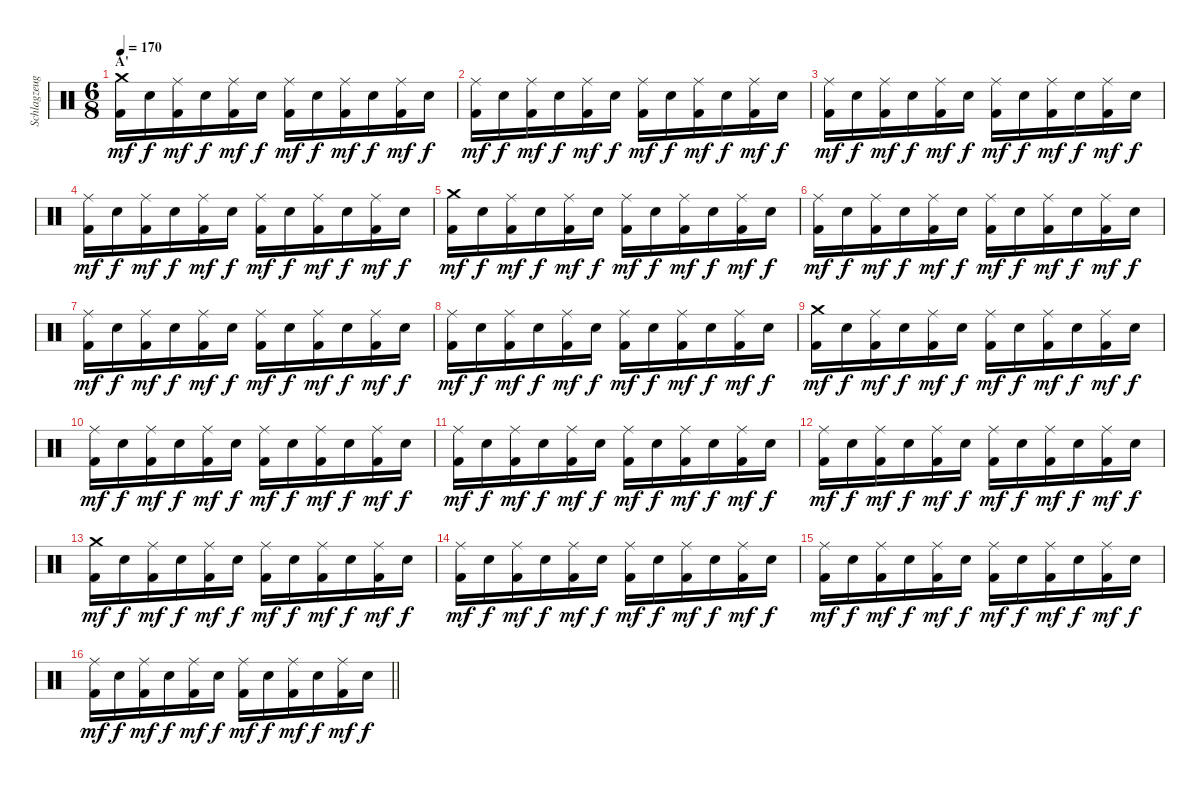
\track ("Schlagzeug" "Schlagzeug") {instrument percussion}
\staff {score}
\articulation defaults
\ts (6 8)
\section ("" "A'")
\tempo 170
\clef neutral
\ks c
("Crash medium (hit)" "Kick (hit) 2").16{dy mf} "Electric Snare (hit)".16{dy f} ("Ride (middle)" "Kick (hit) 2").16{dy mf} "Electric Snare (hit)".16{dy f} ("Ride (middle)" "Kick (hit) 2").16{dy mf} "Electric Snare (hit)".16{dy f} ("Ride (middle)" "Kick (hit) 2").16{dy mf} "Electric Snare (hit)".16{dy f} ("Ride (middle)" "Kick (hit) 2").16{dy mf} "Electric Snare (hit)".16{dy f} ("Ride (middle)" "Kick (hit) 2").16{dy mf} "Electric Snare (hit)".16{dy f} |
("Ride (middle)" "Kick (hit) 2").16{dy mf} "Electric Snare (hit)".16{dy f} ("Ride (middle)" "Kick (hit) 2").16{dy mf} "Electric Snare (hit)".16{dy f} ("Ride (middle)" "Kick (hit) 2").16{dy mf} "Electric Snare (hit)".16{dy f} ("Ride (middle)" "Kick (hit) 2").16{dy mf} "Electric Snare (hit)".16{dy f} ("Ride (middle)" "Kick (hit) 2").16{dy mf} "Electric Snare (hit)".16{dy f} ("Ride (middle)" "Kick (hit) 2").16{dy mf} "Electric Snare (hit)".16{dy f} |
("Ride (middle)" "Kick (hit) 2").16{dy mf} "Electric Snare (hit)".16{dy f} ("Ride (middle)" "Kick (hit) 2").16{dy mf} "Electric Snare (hit)".16{dy f} ("Ride (middle)" "Kick (hit) 2").16{dy mf} "Electric Snare (hit)".16{dy f} ("Ride (middle)" "Kick (hit) 2").16{dy mf} "Electric Snare (hit)".16{dy f} ("Ride (middle)" "Kick (hit) 2").16{dy mf} "Electric Snare (hit)".16{dy f} ("Ride (middle)" "Kick (hit) 2").16{dy mf} "Electric Snare (hit)".16{dy f} |
("Ride (middle)" "Kick (hit) 2").16{dy mf} "Electric Snare (hit)".16{dy f} ("Ride (middle)" "Kick (hit) 2").16{dy mf} "Electric Snare (hit)".16{dy f} ("Ride (middle)" "Kick (hit) 2").16{dy mf} "Electric Snare (hit)".16{dy f} ("Ride (middle)" "Kick (hit) 2").16{dy mf} "Electric Snare (hit)".16{dy f} ("Ride (middle)" "Kick (hit) 2").16{dy mf} "Electric Snare (hit)".16{dy f} ("Ride (middle)" "Kick (hit) 2").16{dy mf} "Electric Snare (hit)".16{dy f} |
("Crash medium (hit)" "Kick (hit) 2").16{dy mf} "Electric Snare (hit)".16{dy f} ("Ride (middle)" "Kick (hit) 2").16{dy mf} "Electric Snare (hit)".16{dy f} ("Ride (middle)" "Kick (hit) 2").16{dy mf} "Electric Snare (hit)".16{dy f} ("Ride (middle)" "Kick (hit) 2").16{dy mf} "Electric Snare (hit)".16{dy f} ("Ride (middle)" "Kick (hit) 2").16{dy mf} "Electric Snare (hit)".16{dy f} ("Ride (middle)" "Kick (hit) 2").16{dy mf} "Electric Snare (hit)".16{dy f} |
("Ride (middle)" "Kick (hit) 2").16{dy mf} "Electric Snare (hit)".16{dy f} ("Ride (middle)" "Kick (hit) 2").16{dy mf} "Electric Snare (hit)".16{dy f} ("Ride (middle)" "Kick (hit) 2").16{dy mf} "Electric Snare (hit)".16{dy f} ("Ride (middle)" "Kick (hit) 2").16{dy mf} "Electric Snare (hit)".16{dy f} ("Ride (middle)" "Kick (hit) 2").16{dy mf} "Electric Snare (hit)".16{dy f} ("Ride (middle)" "Kick (hit) 2").16{dy mf} "Electric Snare (hit)".16{dy f} |
("Ride (middle)" "Kick (hit) 2").16{dy mf} "Electric Snare (hit)".16{dy f} ("Ride (middle)" "Kick (hit) 2").16{dy mf} "Electric Snare (hit)".16{dy f} ("Ride (middle)" "Kick (hit) 2").16{dy mf} "Electric Snare (hit)".16{dy f} ("Ride (middle)" "Kick (hit) 2").16{dy mf} "Electric Snare (hit)".16{dy f} ("Ride (middle)" "Kick (hit) 2").16{dy mf} "Electric Snare (hit)".16{dy f} ("Ride (middle)" "Kick (hit) 2").16{dy mf} "Electric Snare (hit)".16{dy f} |
("Ride (middle)" "Kick (hit) 2").16{dy mf} "Electric Snare (hit)".16{dy f} ("Ride (middle)" "Kick (hit) 2").16{dy mf} "Electric Snare (hit)".16{dy f} ("Ride (middle)" "Kick (hit) 2").16{dy mf} "Electric Snare (hit)".16{dy f} ("Ride (middle)" "Kick (hit) 2").16{dy mf} "Electric Snare (hit)".16{dy f} ("Ride (middle)" "Kick (hit) 2").16{dy mf} "Electric Snare (hit)".16{dy f} ("Ride (middle)" "Kick (hit) 2").16{dy mf} "Electric Snare (hit)".16{dy f} |
("Crash medium (hit)" "Kick (hit) 2").16{dy mf} "Electric Snare (hit)".16{dy f} ("Ride (middle)" "Kick (hit) 2").16{dy mf} "Electric Snare (hit)".16{dy f} ("Ride (middle)" "Kick (hit) 2").16{dy mf} "Electric Snare (hit)".16{dy f} ("Ride (middle)" "Kick (hit) 2").16{dy mf} "Electric Snare (hit)".16{dy f} ("Ride (middle)" "Kick (hit) 2").16{dy mf} "Electric Snare (hit)".16{dy f} ("Ride (middle)" "Kick (hit) 2").16{dy mf} "Electric Snare (hit)".16{dy f} |
("Ride (middle)" "Kick (hit) 2").16{dy mf} "Electric Snare (hit)".16{dy f} ("Ride (middle)" "Kick (hit) 2").16{dy mf} "Electric Snare (hit)".16{dy f} ("Ride (middle)" "Kick (hit) 2").16{dy mf} "Electric Snare (hit)".16{dy f} ("Ride (middle)" "Kick (hit) 2").16{dy mf} "Electric Snare (hit)".16{dy f} ("Ride (middle)" "Kick (hit) 2").16{dy mf} "Electric Snare (hit)".16{dy f} ("Ride (middle)" "Kick (hit) 2").16{dy mf} "Electric Snare (hit)".16{dy f} |
("Ride (middle)" "Kick (hit) 2").16{dy mf} "Electric Snare (hit)".16{dy f} ("Ride (middle)" "Kick (hit) 2").16{dy mf} "Electric Snare (hit)".16{dy f} ("Ride (middle)" "Kick (hit) 2").16{dy mf} "Electric Snare (hit)".16{dy f} ("Ride (middle)" "Kick (hit) 2").16{dy mf} "Electric Snare (hit)".16{dy f} ("Ride (middle)" "Kick (hit) 2").16{dy mf} "Electric Snare (hit)".16{dy f} ("Ride (middle)" "Kick (hit) 2").16{dy mf} "Electric Snare (hit)".16{dy f} |
("Ride (middle)" "Kick (hit) 2").16{dy mf} "Electric Snare (hit)".16{dy f} ("Ride (middle)" "Kick (hit) 2").16{dy mf} "Electric Snare (hit)".16{dy f} ("Ride (middle)" "Kick (hit) 2").16{dy mf} "Electric Snare (hit)".16{dy f} ("Ride (middle)" "Kick (hit) 2").16{dy mf} "Electric Snare (hit)".16{dy f} ("Ride (middle)" "Kick (hit) 2").16{dy mf} "Electric Snare (hit)".16{dy f} ("Ride (middle)" "Kick (hit) 2").16{dy mf} "Electric Snare (hit)".16{dy f} |
("Crash medium (hit)" "Kick (hit) 2").16{dy mf} "Electric Snare (hit)".16{dy f} ("Ride (middle)" "Kick (hit) 2").16{dy mf} "Electric Snare (hit)".16{dy f} ("Ride (middle)" "Kick (hit) 2").16{dy mf} "Electric Snare (hit)".16{dy f} ("Ride (middle)" "Kick (hit) 2").16{dy mf} "Electric Snare (hit)".16{dy f} ("Ride (middle)" "Kick (hit) 2").16{dy mf} "Electric Snare (hit)".16{dy f} ("Ride (middle)" "Kick (hit) 2").16{dy mf} "Electric Snare (hit)".16{dy f} |
("Ride (middle)" "Kick (hit) 2").16{dy mf} "Electric Snare (hit)".16{dy f} ("Ride (middle)" "Kick (hit) 2").16{dy mf} "Electric Snare (hit)".16{dy f} ("Ride (middle)" "Kick (hit) 2").16{dy mf} "Electric Snare (hit)".16{dy f} ("Ride (middle)" "Kick (hit) 2").16{dy mf} "Electric Snare (hit)".16{dy f} ("Ride (middle)" "Kick (hit) 2").16{dy mf} "Electric Snare (hit)".16{dy f} ("Ride (middle)" "Kick (hit) 2").16{dy mf} "Electric Snare (hit)".16{dy f} |
("Ride (middle)" "Kick (hit) 2").16{dy mf} "Electric Snare (hit)".16{dy f} ("Ride (middle)" "Kick (hit) 2").16{dy mf} "Electric Snare (hit)".16{dy f} ("Ride (middle)" "Kick (hit) 2").16{dy mf} "Electric Snare (hit)".16{dy f} ("Ride (middle)" "Kick (hit) 2").16{dy mf} "Electric Snare (hit)".16{dy f} ("Ride (middle)" "Kick (hit) 2").16{dy mf} "Electric Snare (hit)".16{dy f} ("Ride (middle)" "Kick (hit) 2").16{dy mf} "Electric Snare (hit)".16{dy f} |
\barLineRight lightlight
("Ride (middle)" "Kick (hit) 2").16{dy mf} "Electric Snare (hit)".16{dy f} ("Ride (middle)" "Kick (hit) 2").16{dy mf} "Electric Snare (hit)".16{dy f} ("Ride (middle)" "Kick (hit) 2").16{dy mf} "Electric Snare (hit)".16{dy f} ("Ride (middle)" "Kick (hit) 2").16{dy mf} "Electric Snare (hit)".16{dy f} ("Ride (middle)" "Kick (hit) 2").16{dy mf} "Electric Snare (hit)".16{dy f} ("Ride (middle)" "Kick (hit) 2").16{dy mf} "Electric Snare (hit)".16{dy f}
